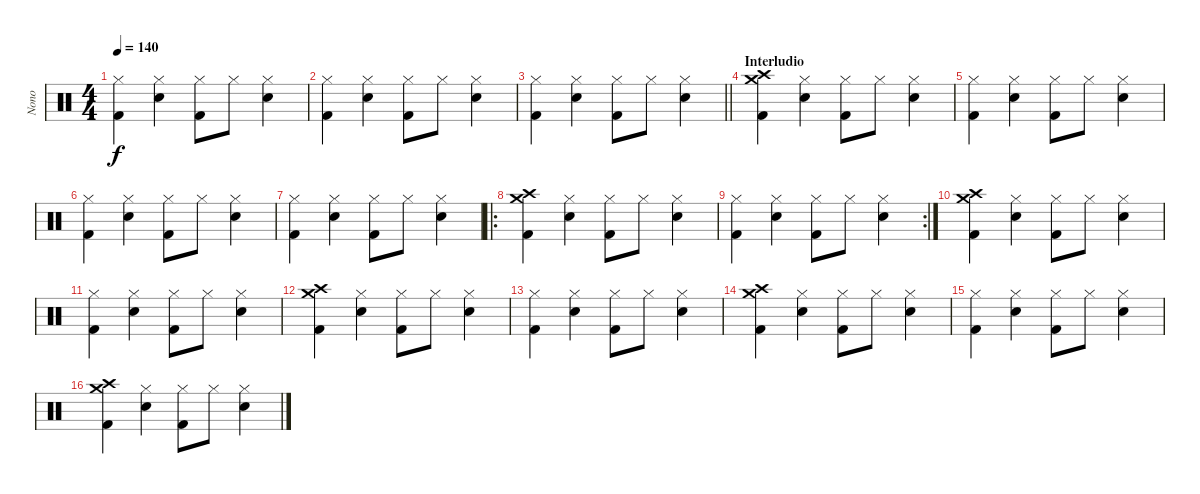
\track ("Nono" "Nono") {instrument percussion}
\staff {score}
\articulation defaults
\ts (4 4)
\tempo 140
\clef neutral
\ks c
("Hi-Hat (closed)" "Kick (hit) 2").4{dy f} ("Hi-Hat (closed)" "Snare (hit) 2").4 ("Hi-Hat (closed)" "Kick (hit) 2").8 "Hi-Hat (closed)".8 ("Hi-Hat (closed)" "Snare (hit) 2").4 |
("Hi-Hat (closed)" "Kick (hit) 2").4 ("Hi-Hat (closed)" "Snare (hit) 2").4 ("Hi-Hat (closed)" "Kick (hit) 2").8 "Hi-Hat (closed)".8 ("Hi-Hat (closed)" "Snare (hit) 2").4 |
\barLineRight lightlight
("Hi-Hat (closed)" "Kick (hit) 2").4 ("Hi-Hat (closed)" "Snare (hit) 2").4 ("Hi-Hat (closed)" "Kick (hit) 2").8 "Hi-Hat (closed)".8 ("Hi-Hat (closed)" "Snare (hit) 2").4 |
\section ("" "Interludio")
("Crash high (hit)" "Crash medium (hit)" "Kick (hit) 2").4 ("Hi-Hat (closed)" "Snare (hit) 2").4 ("Hi-Hat (closed)" "Kick (hit) 2").8 "Hi-Hat (closed)".8 ("Hi-Hat (closed)" "Snare (hit) 2").4 |
("Hi-Hat (closed)" "Kick (hit) 2").4 ("Hi-Hat (closed)" "Snare (hit) 2").4 ("Hi-Hat (closed)" "Kick (hit) 2").8 "Hi-Hat (closed)".8 ("Hi-Hat (closed)" "Snare (hit) 2").4 |
("Hi-Hat (closed)" "Kick (hit) 2").4 ("Hi-Hat (closed)" "Snare (hit) 2").4 ("Hi-Hat (closed)" "Kick (hit) 2").8 "Hi-Hat (closed)".8 ("Hi-Hat (closed)" "Snare (hit) 2").4 |
("Hi-Hat (closed)" "Kick (hit) 2").4 ("Hi-Hat (closed)" "Snare (hit) 2").4 ("Hi-Hat (closed)" "Kick (hit) 2").8 "Hi-Hat (closed)".8 ("Hi-Hat (closed)" "Snare (hit) 2").4 |
\ro
("Crash high (hit)" "Crash medium (hit)" "Kick (hit) 2").4 ("Hi-Hat (closed)" "Snare (hit) 2").4 ("Hi-Hat (closed)" "Kick (hit) 2").8 "Hi-Hat (closed)".8 ("Hi-Hat (closed)" "Snare (hit) 2").4 |
\rc 2
("Hi-Hat (closed)" "Kick (hit) 2").4 ("Hi-Hat (closed)" "Snare (hit) 2").4 ("Hi-Hat (closed)" "Kick (hit) 2").8 "Hi-Hat (closed)".8 ("Hi-Hat (closed)" "Snare (hit) 2").4 |
("Crash high (hit)" "Crash medium (hit)" "Kick (hit) 2").4 ("Hi-Hat (closed)" "Snare (hit) 2").4 ("Hi-Hat (closed)" "Kick (hit) 2").8 "Hi-Hat (closed)".8 ("Hi-Hat (closed)" "Snare (hit) 2").4 |
("Hi-Hat (closed)" "Kick (hit) 2").4 ("Hi-Hat (closed)" "Snare (hit) 2").4 ("Hi-Hat (closed)" "Kick (hit) 2").8 "Hi-Hat (closed)".8 ("Hi-Hat (closed)" "Snare (hit) 2").4 |
("Crash high (hit)" "Crash medium (hit)" "Kick (hit) 2").4 ("Hi-Hat (closed)" "Snare (hit) 2").4 ("Hi-Hat (closed)" "Kick (hit) 2").8 "Hi-Hat (closed)".8 ("Hi-Hat (closed)" "Snare (hit) 2").4 |
("Hi-Hat (closed)" "Kick (hit) 2").4 ("Hi-Hat (closed)" "Snare (hit) 2").4 ("Hi-Hat (closed)" "Kick (hit) 2").8 "Hi-Hat (closed)".8 ("Hi-Hat (closed)" "Snare (hit) 2").4 |
("Crash high (hit)" "Crash medium (hit)" "Kick (hit) 2").4 ("Hi-Hat (closed)" "Snare (hit) 2").4 ("Hi-Hat (closed)" "Kick (hit) 2").8 "Hi-Hat (closed)".8 ("Hi-Hat (closed)" "Snare (hit) 2").4 |
("Hi-Hat (closed)" "Kick (hit) 2").4 ("Hi-Hat (closed)" "Snare (hit) 2").4 ("Hi-Hat (closed)" "Kick (hit) 2").8 "Hi-Hat (closed)".8 ("Hi-Hat (closed)" "Snare (hit) 2").4 |
("Crash high (hit)" "Crash medium (hit)" "Kick (hit) 2").4 ("Hi-Hat (closed)" "Snare (hit) 2").4 ("Hi-Hat (closed)" "Kick (hit) 2").8 "Hi-Hat (closed)".8 ("Hi-Hat (closed)" "Snare (hit) 2").4
